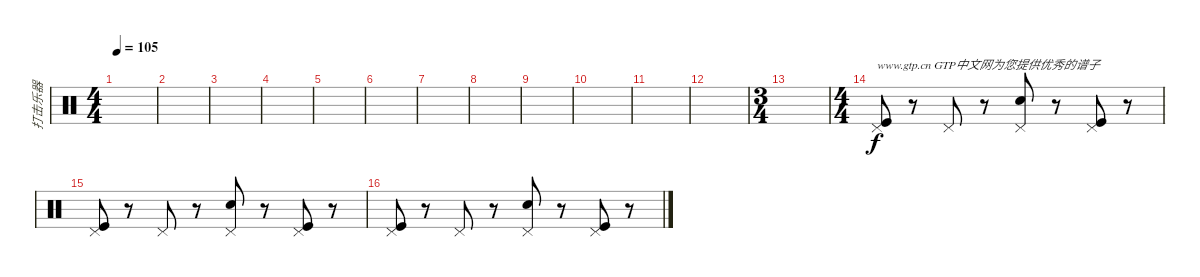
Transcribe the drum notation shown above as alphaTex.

\track ("打击乐器" "打击乐器") {instrument percussion}
\staff {score}
\articulation defaults
\ts (4 4)
\tempo 105
\clef neutral
\ks c
|
|
|
|
|
|
|
|
|
|
|
|
\ts (3 4)
|
\ts (4 4)
("Kick (hit)" "Pedal Hi-Hat (hit)").8{txt "www.gtp.cn GTP中文网为您提供优秀的谱子"} r.8 "Pedal Hi-Hat (hit)".8 r.8 ("Snare (hit) 2" "Pedal Hi-Hat (hit)").8 r.8 ("Kick (hit)" "Pedal Hi-Hat (hit)").8 r.8 |
("Kick (hit)" "Pedal Hi-Hat (hit)").8 r.8 "Pedal Hi-Hat (hit)".8 r.8 ("Snare (hit) 2" "Pedal Hi-Hat (hit)").8 r.8 ("Kick (hit)" "Pedal Hi-Hat (hit)").8 r.8 |
("Kick (hit)" "Pedal Hi-Hat (hit)").8 r.8 "Pedal Hi-Hat (hit)".8 r.8 ("Snare (hit) 2" "Pedal Hi-Hat (hit)").8 r.8 ("Kick (hit)" "Pedal Hi-Hat (hit)").8 r.8
